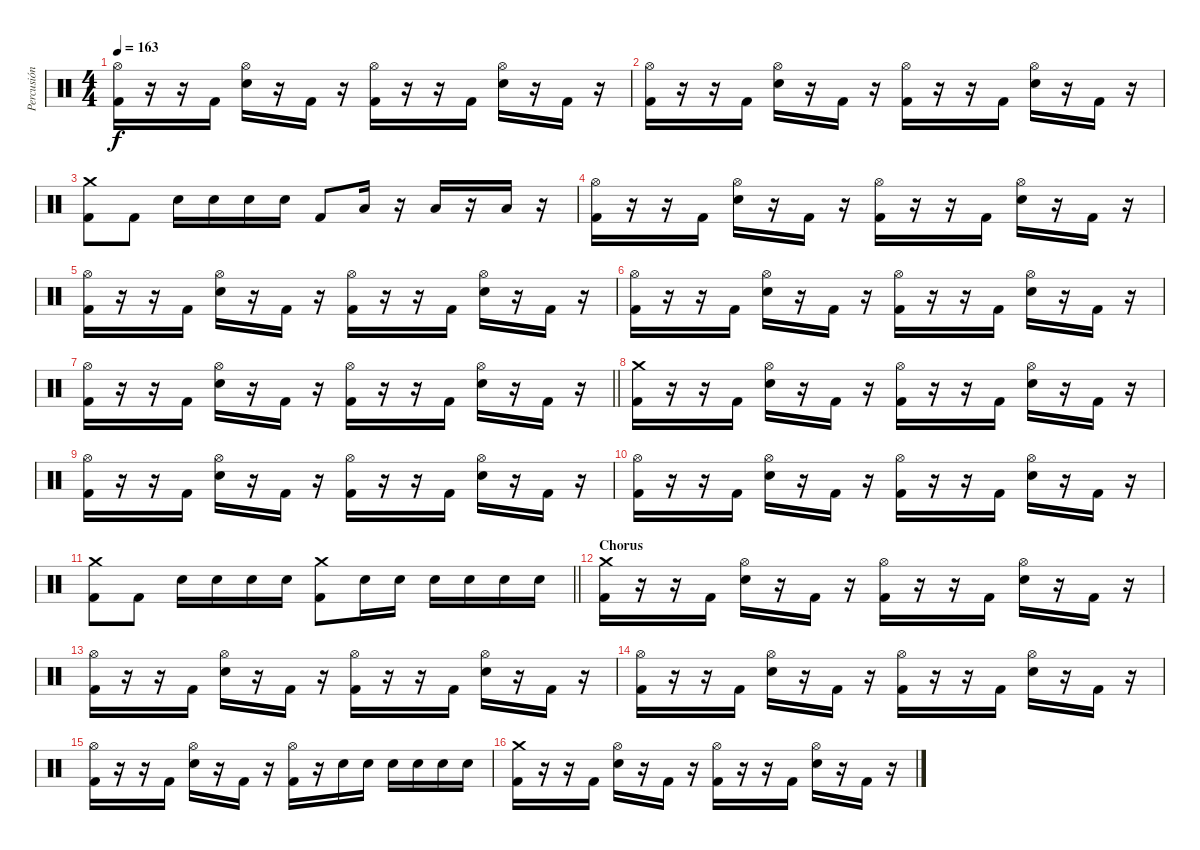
\track ("Percusión" "Percusión") {instrument percussion}
\staff {score}
\articulation defaults
\ts (4 4)
\tempo 163
\clef neutral
\ks c
("Hi-Hat (open)" "Kick (hit) 2").16{dy f} r.16 r.16 "Kick (hit) 2".16 ("Hi-Hat (open)" "Snare (hit) 2").16 r.16 "Kick (hit) 2".16 r.16 ("Hi-Hat (open)" "Kick (hit) 2").16 r.16 r.16 "Kick (hit) 2".16 ("Hi-Hat (open)" "Snare (hit) 2").16 r.16 "Kick (hit) 2".16 r.16 |
("Hi-Hat (open)" "Kick (hit) 2").16 r.16 r.16 "Kick (hit) 2".16 ("Hi-Hat (open)" "Snare (hit) 2").16 r.16 "Kick (hit) 2".16 r.16 ("Hi-Hat (open)" "Kick (hit) 2").16 r.16 r.16 "Kick (hit) 2".16 ("Hi-Hat (open)" "Snare (hit) 2").16 r.16 "Kick (hit) 2".16 r.16 |
("Crash medium (hit)" "Kick (hit) 2").8 "Kick (hit) 2".8 "Snare (hit) 2".16 "Snare (hit) 2".16 "Snare (hit) 2".16 "Snare (hit) 2".16 "Kick (hit) 2".8 "Low Tom (hit)".16 r.16 "Low Tom (hit)".16 r.16 "Low Tom (hit)".16 r.16 |
("Hi-Hat (open)" "Kick (hit) 2").16 r.16 r.16 "Kick (hit) 2".16 ("Hi-Hat (open)" "Snare (hit) 2").16 r.16 "Kick (hit) 2".16 r.16 ("Hi-Hat (open)" "Kick (hit) 2").16 r.16 r.16 "Kick (hit) 2".16 ("Hi-Hat (open)" "Snare (hit) 2").16 r.16 "Kick (hit) 2".16 r.16 |
("Hi-Hat (open)" "Kick (hit) 2").16 r.16 r.16 "Kick (hit) 2".16 ("Hi-Hat (open)" "Snare (hit) 2").16 r.16 "Kick (hit) 2".16 r.16 ("Hi-Hat (open)" "Kick (hit) 2").16 r.16 r.16 "Kick (hit) 2".16 ("Hi-Hat (open)" "Snare (hit) 2").16 r.16 "Kick (hit) 2".16 r.16 |
("Hi-Hat (open)" "Kick (hit) 2").16 r.16 r.16 "Kick (hit) 2".16 ("Hi-Hat (open)" "Snare (hit) 2").16 r.16 "Kick (hit) 2".16 r.16 ("Hi-Hat (open)" "Kick (hit) 2").16 r.16 r.16 "Kick (hit) 2".16 ("Hi-Hat (open)" "Snare (hit) 2").16 r.16 "Kick (hit) 2".16 r.16 |
\barLineRight lightlight
("Hi-Hat (open)" "Kick (hit) 2").16 r.16 r.16 "Kick (hit) 2".16 ("Hi-Hat (open)" "Snare (hit) 2").16 r.16 "Kick (hit) 2".16 r.16 ("Hi-Hat (open)" "Kick (hit) 2").16 r.16 r.16 "Kick (hit) 2".16 ("Hi-Hat (open)" "Snare (hit) 2").16 r.16 "Kick (hit) 2".16 r.16 |
("Crash medium (hit)" "Kick (hit) 2").16 r.16 r.16 "Kick (hit) 2".16 ("Hi-Hat (open)" "Snare (hit) 2").16 r.16 "Kick (hit) 2".16 r.16 ("Hi-Hat (open)" "Kick (hit) 2").16 r.16 r.16 "Kick (hit) 2".16 ("Hi-Hat (open)" "Snare (hit) 2").16 r.16 "Kick (hit) 2".16 r.16 |
("Hi-Hat (open)" "Kick (hit) 2").16 r.16 r.16 "Kick (hit) 2".16 ("Hi-Hat (open)" "Snare (hit) 2").16 r.16 "Kick (hit) 2".16 r.16 ("Hi-Hat (open)" "Kick (hit) 2").16 r.16 r.16 "Kick (hit) 2".16 ("Hi-Hat (open)" "Snare (hit) 2").16 r.16 "Kick (hit) 2".16 r.16 |
("Hi-Hat (open)" "Kick (hit) 2").16 r.16 r.16 "Kick (hit) 2".16 ("Hi-Hat (open)" "Snare (hit) 2").16 r.16 "Kick (hit) 2".16 r.16 ("Hi-Hat (open)" "Kick (hit) 2").16 r.16 r.16 "Kick (hit) 2".16 ("Hi-Hat (open)" "Snare (hit) 2").16 r.16 "Kick (hit) 2".16 r.16 |
\barLineRight lightlight
("Crash medium (hit)" "Kick (hit) 2").8 "Kick (hit) 2".8 "Snare (hit) 2".16 "Snare (hit) 2".16 "Snare (hit) 2".16 "Snare (hit) 2".16 ("Crash medium (hit)" "Kick (hit) 2").8 "Snare (hit) 2".16 "Snare (hit) 2".16 "Snare (hit) 2".16 "Snare (hit) 2".16 "Snare (hit) 2".16 "Snare (hit) 2".16 |
\section ("" "Chorus")
("Crash medium (hit)" "Kick (hit) 2").16 r.16 r.16 "Kick (hit) 2".16 ("Hi-Hat (open)" "Snare (hit) 2").16 r.16 "Kick (hit) 2".16 r.16 ("Hi-Hat (open)" "Kick (hit) 2").16 r.16 r.16 "Kick (hit) 2".16 ("Hi-Hat (open)" "Snare (hit) 2").16 r.16 "Kick (hit) 2".16 r.16 |
("Hi-Hat (open)" "Kick (hit) 2").16 r.16 r.16 "Kick (hit) 2".16 ("Hi-Hat (open)" "Snare (hit) 2").16 r.16 "Kick (hit) 2".16 r.16 ("Hi-Hat (open)" "Kick (hit) 2").16 r.16 r.16 "Kick (hit) 2".16 ("Hi-Hat (open)" "Snare (hit) 2").16 r.16 "Kick (hit) 2".16 r.16 |
("Hi-Hat (open)" "Kick (hit) 2").16 r.16 r.16 "Kick (hit) 2".16 ("Hi-Hat (open)" "Snare (hit) 2").16 r.16 "Kick (hit) 2".16 r.16 ("Hi-Hat (open)" "Kick (hit) 2").16 r.16 r.16 "Kick (hit) 2".16 ("Hi-Hat (open)" "Snare (hit) 2").16 r.16 "Kick (hit) 2".16 r.16 |
("Hi-Hat (open)" "Kick (hit) 2").16 r.16 r.16 "Kick (hit) 2".16 ("Hi-Hat (open)" "Snare (hit) 2").16 r.16 "Kick (hit) 2".16 r.16 ("Hi-Hat (open)" "Kick (hit) 2").16 r.16 "Snare (hit) 2".16 "Snare (hit) 2".16 "Snare (hit) 2".16 "Snare (hit) 2".16 "Snare (hit) 2".16 "Snare (hit) 2".16 |
("Crash medium (hit)" "Kick (hit) 2").16 r.16 r.16 "Kick (hit) 2".16 ("Hi-Hat (open)" "Snare (hit) 2").16 r.16 "Kick (hit) 2".16 r.16 ("Hi-Hat (open)" "Kick (hit) 2").16 r.16 r.16 "Kick (hit) 2".16 ("Hi-Hat (open)" "Snare (hit) 2").16 r.16 "Kick (hit) 2".16 r.16
